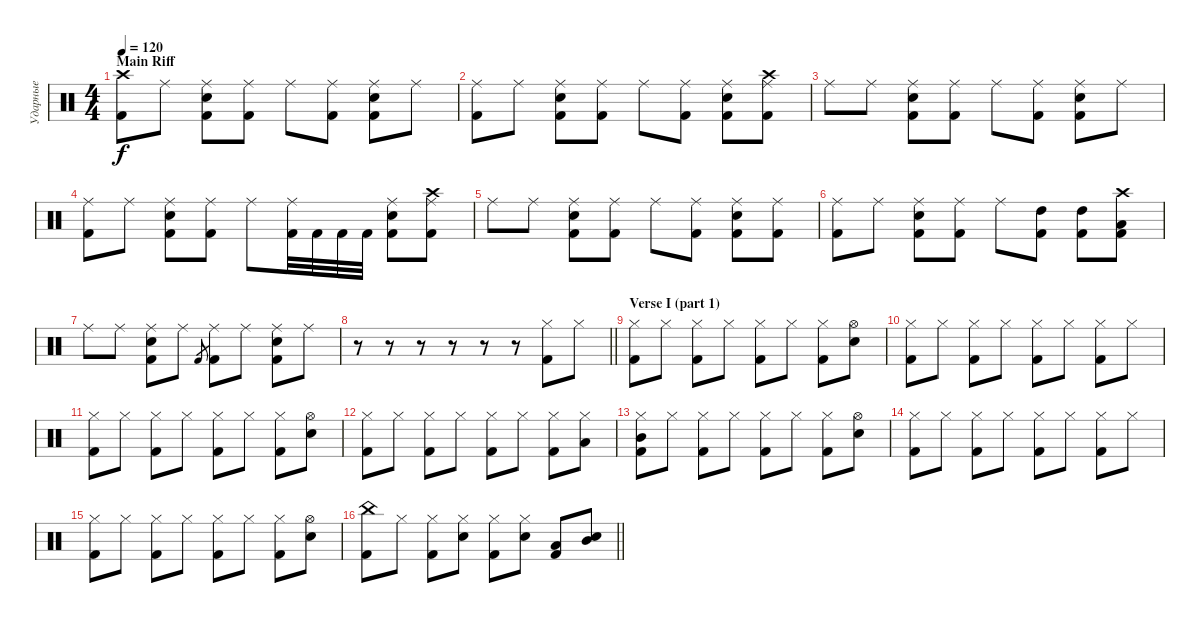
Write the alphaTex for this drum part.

\track ("Ударные" "Ударные") {instrument percussion}
\staff {score}
\articulation defaults
\ts (4 4)
\section ("" "Main Riff")
\tempo 120
\clef neutral
\ks c
("Crash high (hit)" "Kick (hit) 2").8{dy f} "Ride (middle)".8 ("Ride (middle)" "Electric Snare (hit)" "Kick (hit) 2").8 ("Ride (middle)" "Kick (hit) 2").8 "Ride (middle)".8 ("Ride (middle)" "Kick (hit) 2").8 ("Ride (middle)" "Electric Snare (hit)" "Kick (hit) 2").8 "Ride (middle)".8 |
("Ride (middle)" "Kick (hit) 2").8 "Ride (middle)".8 ("Ride (middle)" "Electric Snare (hit)" "Kick (hit) 2").8 ("Ride (middle)" "Kick (hit) 2").8 "Ride (middle)".8 ("Ride (middle)" "Kick (hit) 2").8 ("Ride (middle)" "Electric Snare (hit)" "Kick (hit) 2").8 ("Crash high (hit)" "Ride (middle)" "Kick (hit) 2").8 |
"Ride (middle)".8 "Ride (middle)".8 ("Ride (middle)" "Electric Snare (hit)" "Kick (hit) 2").8 ("Ride (middle)" "Kick (hit) 2").8 "Ride (middle)".8 ("Ride (middle)" "Kick (hit) 2").8 ("Ride (middle)" "Electric Snare (hit)" "Kick (hit) 2").8 "Ride (middle)".8 |
("Ride (middle)" "Kick (hit) 2").8 "Ride (middle)".8 ("Ride (middle)" "Electric Snare (hit)" "Kick (hit) 2").8 ("Ride (middle)" "Kick (hit) 2").8 "Ride (middle)".8 ("Ride (middle)" "Kick (hit) 2").32 "Kick (hit) 2".32 "Kick (hit) 2".32 "Kick (hit) 2".32 ("Ride (middle)" "Electric Snare (hit)" "Kick (hit) 2").8 ("Crash high (hit)" "Ride (middle)" "Kick (hit) 2").8 |
"Ride (middle)".8 "Ride (middle)".8 ("Ride (middle)" "Electric Snare (hit)" "Kick (hit) 2").8 ("Ride (middle)" "Kick (hit) 2").8 "Ride (middle)".8 ("Ride (middle)" "Kick (hit) 2").8 ("Ride (middle)" "Electric Snare (hit)" "Kick (hit) 2").8 ("Ride (middle)" "Kick (hit) 2").8 |
("Ride (middle)" "Kick (hit) 2").8 "Ride (middle)".8 ("Ride (middle)" "Electric Snare (hit)" "Kick (hit) 2").8 ("Ride (middle)" "Kick (hit) 2").8 "Ride (middle)".8 ("High Tom (hit)" "Kick (hit) 2").8 ("High Tom (hit)" "Kick (hit) 2").8 ("Crash high (hit)" "Low Tom (hit)" "Kick (hit) 2").8 |
"Ride (middle)".8 "Ride (middle)".8 ("Ride (middle)" "Electric Snare (hit)" "Kick (hit) 2").8 "Ride (middle)".8 "Kick (hit) 2".8{gr} ("Ride (middle)" "Kick (hit) 2").8 "Ride (middle)".8 ("Ride (middle)" "Electric Snare (hit)" "Kick (hit) 2").8 "Ride (middle)".8 |
\barLineRight lightlight
r.8 r.8 r.8 r.8 r.8 r.8 ("Hi-Hat (closed)" "Kick (hit) 2").8 "Hi-Hat (closed)".8 |
\section ("" "Verse I (part 1)")
("Hi-Hat (closed)" "Kick (hit) 2").8 "Hi-Hat (closed)".8 ("Hi-Hat (closed)" "Kick (hit) 2").8 "Hi-Hat (closed)".8 ("Hi-Hat (closed)" "Kick (hit) 2").8 "Hi-Hat (closed)".8 ("Hi-Hat (closed)" "Kick (hit) 2").8 ("Hi-Hat (open)" "Electric Snare (hit)").8 |
("Hi-Hat (closed)" "Kick (hit) 2").8 "Hi-Hat (closed)".8 ("Hi-Hat (closed)" "Kick (hit) 2").8 "Hi-Hat (closed)".8 ("Hi-Hat (closed)" "Kick (hit) 2").8 "Hi-Hat (closed)".8 ("Hi-Hat (closed)" "Kick (hit) 2").8 "Hi-Hat (closed)".8 |
("Hi-Hat (closed)" "Kick (hit) 2").8 "Hi-Hat (closed)".8 ("Hi-Hat (closed)" "Kick (hit) 2").8 "Hi-Hat (closed)".8 ("Hi-Hat (closed)" "Kick (hit) 2").8 "Hi-Hat (closed)".8 ("Hi-Hat (closed)" "Kick (hit) 2").8 ("Hi-Hat (open)" "Electric Snare (hit)").8 |
("Hi-Hat (closed)" "Kick (hit) 2").8 "Hi-Hat (closed)".8 ("Hi-Hat (closed)" "Kick (hit) 2").8 "Hi-Hat (closed)".8 ("Hi-Hat (closed)" "Kick (hit) 2").8 "Hi-Hat (closed)".8 ("Hi-Hat (closed)" "Kick (hit) 2").8 ("Hi-Hat (closed)" "Low Tom (hit)").8 |
("Hi-Hat (closed)" "Mid Tom (hit)" "Kick (hit) 2").8 "Hi-Hat (closed)".8 ("Hi-Hat (closed)" "Kick (hit) 2").8 "Hi-Hat (closed)".8 ("Hi-Hat (closed)" "Kick (hit) 2").8 "Hi-Hat (closed)".8 ("Hi-Hat (closed)" "Kick (hit) 2").8 ("Hi-Hat (open)" "Electric Snare (hit)").8 |
("Hi-Hat (closed)" "Kick (hit) 2").8 "Hi-Hat (closed)".8 ("Hi-Hat (closed)" "Kick (hit) 2").8 "Hi-Hat (closed)".8 ("Hi-Hat (closed)" "Kick (hit) 2").8 "Hi-Hat (closed)".8 ("Hi-Hat (closed)" "Kick (hit) 2").8 "Hi-Hat (closed)".8 |
("Hi-Hat (closed)" "Kick (hit) 2").8 "Hi-Hat (closed)".8 ("Hi-Hat (closed)" "Kick (hit) 2").8 "Hi-Hat (closed)".8 ("Hi-Hat (closed)" "Kick (hit) 2").8 "Hi-Hat (closed)".8 ("Hi-Hat (closed)" "Kick (hit) 2").8 ("Hi-Hat (open)" "Electric Snare (hit)").8 |
\barLineRight lightlight
("China (hit)" "Kick (hit) 2").8 "Hi-Hat (closed)".8 ("Hi-Hat (closed)" "Kick (hit) 2").8 ("Hi-Hat (closed)" "Electric Snare (hit)").8 ("Hi-Hat (closed)" "Kick (hit) 2").8 ("Hi-Hat (closed)" "Electric Snare (hit)").8 ("Low Tom (hit)" "Kick (hit) 2").8 ("Mid Tom (hit)" "Electric Snare (hit)").8
